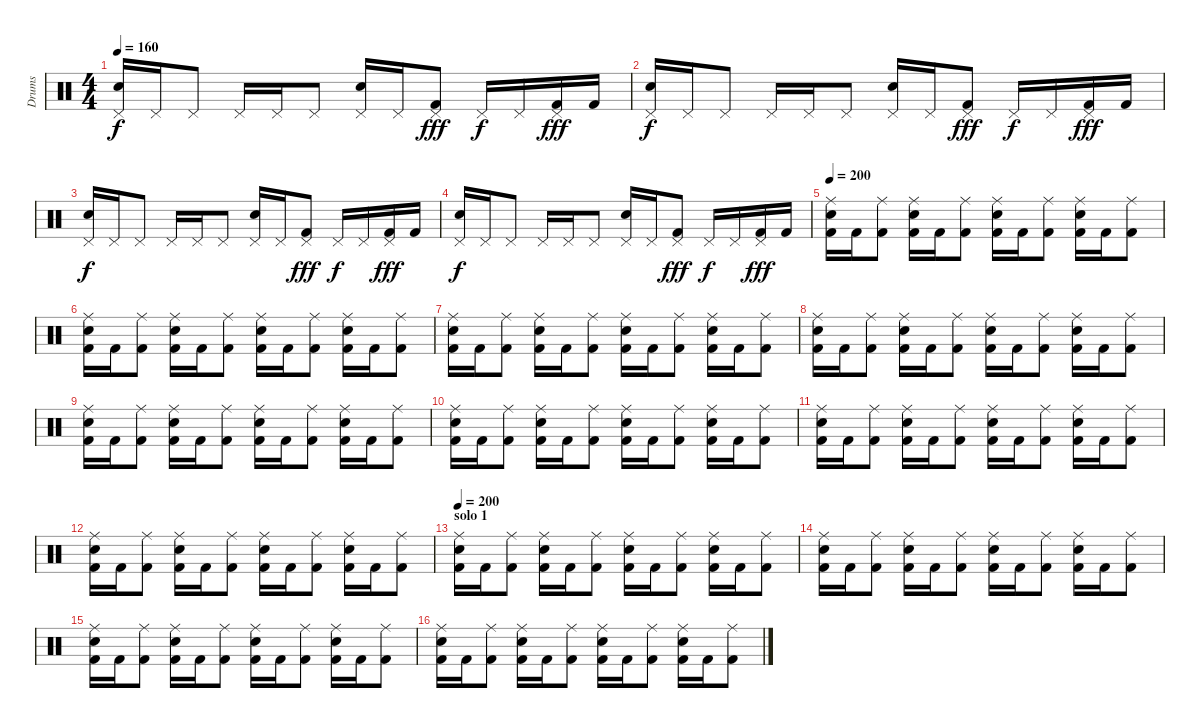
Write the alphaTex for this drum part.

\track ("Drums" "Drums") {instrument percussion}
\staff {score}
\articulation defaults
\ts (4 4)
\tempo 160
\clef neutral
\ks c
("Pedal Hi-Hat (hit)" "Electric Snare (hit)").16{dy f} "Pedal Hi-Hat (hit)".16 "Pedal Hi-Hat (hit)".8 "Pedal Hi-Hat (hit)".16 "Pedal Hi-Hat (hit)".16 "Pedal Hi-Hat (hit)".8 ("Pedal Hi-Hat (hit)" "Electric Snare (hit)").16 "Pedal Hi-Hat (hit)".16 ("Pedal Hi-Hat (hit)" "Kick (hit) 2").8{dy fff} "Pedal Hi-Hat (hit)".16{dy f} "Pedal Hi-Hat (hit)".16 ("Pedal Hi-Hat (hit)" "Kick (hit) 2").16{dy fff} "Kick (hit) 2".16 |
("Pedal Hi-Hat (hit)" "Electric Snare (hit)").16{dy f} "Pedal Hi-Hat (hit)".16 "Pedal Hi-Hat (hit)".8 "Pedal Hi-Hat (hit)".16 "Pedal Hi-Hat (hit)".16 "Pedal Hi-Hat (hit)".8 ("Pedal Hi-Hat (hit)" "Electric Snare (hit)").16 "Pedal Hi-Hat (hit)".16 ("Pedal Hi-Hat (hit)" "Kick (hit) 2").8{dy fff} "Pedal Hi-Hat (hit)".16{dy f} "Pedal Hi-Hat (hit)".16 ("Pedal Hi-Hat (hit)" "Kick (hit) 2").16{dy fff} "Kick (hit) 2".16 |
("Pedal Hi-Hat (hit)" "Electric Snare (hit)").16{dy f} "Pedal Hi-Hat (hit)".16 "Pedal Hi-Hat (hit)".8 "Pedal Hi-Hat (hit)".16 "Pedal Hi-Hat (hit)".16 "Pedal Hi-Hat (hit)".8 ("Pedal Hi-Hat (hit)" "Electric Snare (hit)").16 "Pedal Hi-Hat (hit)".16 ("Pedal Hi-Hat (hit)" "Kick (hit) 2").8{dy fff} "Pedal Hi-Hat (hit)".16{dy f} "Pedal Hi-Hat (hit)".16 ("Pedal Hi-Hat (hit)" "Kick (hit) 2").16{dy fff} "Kick (hit) 2".16 |
("Pedal Hi-Hat (hit)" "Electric Snare (hit)").16{dy f} "Pedal Hi-Hat (hit)".16 "Pedal Hi-Hat (hit)".8 "Pedal Hi-Hat (hit)".16 "Pedal Hi-Hat (hit)".16 "Pedal Hi-Hat (hit)".8 ("Pedal Hi-Hat (hit)" "Electric Snare (hit)").16 "Pedal Hi-Hat (hit)".16 ("Pedal Hi-Hat (hit)" "Kick (hit) 2").8{dy fff} "Pedal Hi-Hat (hit)".16{dy f} "Pedal Hi-Hat (hit)".16 ("Pedal Hi-Hat (hit)" "Kick (hit) 2").16{dy fff} "Kick (hit) 2".16 |
\tempo 200
("Ride (middle)" "Electric Snare (hit)" "Kick (hit) 2").16 "Kick (hit) 2".16 ("Ride (middle)" "Kick (hit) 2").8 ("Ride (middle)" "Electric Snare (hit)" "Kick (hit) 2").16 "Kick (hit) 2".16 ("Ride (middle)" "Kick (hit) 2").8 ("Ride (middle)" "Electric Snare (hit)" "Kick (hit) 2").16 "Kick (hit) 2".16 ("Ride (middle)" "Kick (hit) 2").8 ("Ride (middle)" "Electric Snare (hit)" "Kick (hit) 2").16 "Kick (hit) 2".16 ("Ride (middle)" "Kick (hit) 2").8 |
("Ride (middle)" "Electric Snare (hit)" "Kick (hit) 2").16 "Kick (hit) 2".16 ("Ride (middle)" "Kick (hit) 2").8 ("Ride (middle)" "Electric Snare (hit)" "Kick (hit) 2").16 "Kick (hit) 2".16 ("Ride (middle)" "Kick (hit) 2").8 ("Ride (middle)" "Electric Snare (hit)" "Kick (hit) 2").16 "Kick (hit) 2".16 ("Ride (middle)" "Kick (hit) 2").8 ("Ride (middle)" "Electric Snare (hit)" "Kick (hit) 2").16 "Kick (hit) 2".16 ("Ride (middle)" "Kick (hit) 2").8 |
("Ride (middle)" "Electric Snare (hit)" "Kick (hit) 2").16 "Kick (hit) 2".16 ("Ride (middle)" "Kick (hit) 2").8 ("Ride (middle)" "Electric Snare (hit)" "Kick (hit) 2").16 "Kick (hit) 2".16 ("Ride (middle)" "Kick (hit) 2").8 ("Ride (middle)" "Electric Snare (hit)" "Kick (hit) 2").16 "Kick (hit) 2".16 ("Ride (middle)" "Kick (hit) 2").8 ("Ride (middle)" "Electric Snare (hit)" "Kick (hit) 2").16 "Kick (hit) 2".16 ("Ride (middle)" "Kick (hit) 2").8 |
("Ride (middle)" "Electric Snare (hit)" "Kick (hit) 2").16 "Kick (hit) 2".16 ("Ride (middle)" "Kick (hit) 2").8 ("Ride (middle)" "Electric Snare (hit)" "Kick (hit) 2").16 "Kick (hit) 2".16 ("Ride (middle)" "Kick (hit) 2").8 ("Ride (middle)" "Electric Snare (hit)" "Kick (hit) 2").16 "Kick (hit) 2".16 ("Ride (middle)" "Kick (hit) 2").8 ("Ride (middle)" "Electric Snare (hit)" "Kick (hit) 2").16 "Kick (hit) 2".16 ("Ride (middle)" "Kick (hit) 2").8 |
("Ride (middle)" "Electric Snare (hit)" "Kick (hit) 2").16 "Kick (hit) 2".16 ("Ride (middle)" "Kick (hit) 2").8 ("Ride (middle)" "Electric Snare (hit)" "Kick (hit) 2").16 "Kick (hit) 2".16 ("Ride (middle)" "Kick (hit) 2").8 ("Ride (middle)" "Electric Snare (hit)" "Kick (hit) 2").16 "Kick (hit) 2".16 ("Ride (middle)" "Kick (hit) 2").8 ("Ride (middle)" "Electric Snare (hit)" "Kick (hit) 2").16 "Kick (hit) 2".16 ("Ride (middle)" "Kick (hit) 2").8 |
("Ride (middle)" "Electric Snare (hit)" "Kick (hit) 2").16 "Kick (hit) 2".16 ("Ride (middle)" "Kick (hit) 2").8 ("Ride (middle)" "Electric Snare (hit)" "Kick (hit) 2").16 "Kick (hit) 2".16 ("Ride (middle)" "Kick (hit) 2").8 ("Ride (middle)" "Electric Snare (hit)" "Kick (hit) 2").16 "Kick (hit) 2".16 ("Ride (middle)" "Kick (hit) 2").8 ("Ride (middle)" "Electric Snare (hit)" "Kick (hit) 2").16 "Kick (hit) 2".16 ("Ride (middle)" "Kick (hit) 2").8 |
("Ride (middle)" "Electric Snare (hit)" "Kick (hit) 2").16 "Kick (hit) 2".16 ("Ride (middle)" "Kick (hit) 2").8 ("Ride (middle)" "Electric Snare (hit)" "Kick (hit) 2").16 "Kick (hit) 2".16 ("Ride (middle)" "Kick (hit) 2").8 ("Ride (middle)" "Electric Snare (hit)" "Kick (hit) 2").16 "Kick (hit) 2".16 ("Ride (middle)" "Kick (hit) 2").8 ("Ride (middle)" "Electric Snare (hit)" "Kick (hit) 2").16 "Kick (hit) 2".16 ("Ride (middle)" "Kick (hit) 2").8 |
("Ride (middle)" "Electric Snare (hit)" "Kick (hit) 2").16 "Kick (hit) 2".16 ("Ride (middle)" "Kick (hit) 2").8 ("Ride (middle)" "Electric Snare (hit)" "Kick (hit) 2").16 "Kick (hit) 2".16 ("Ride (middle)" "Kick (hit) 2").8 ("Ride (middle)" "Electric Snare (hit)" "Kick (hit) 2").16 "Kick (hit) 2".16 ("Ride (middle)" "Kick (hit) 2").8 ("Ride (middle)" "Electric Snare (hit)" "Kick (hit) 2").16 "Kick (hit) 2".16 ("Ride (middle)" "Kick (hit) 2").8 |
\section ("" "solo 1")
\tempo 200
("Ride (middle)" "Electric Snare (hit)" "Kick (hit) 2").16 "Kick (hit) 2".16 ("Ride (middle)" "Kick (hit) 2").8 ("Ride (middle)" "Electric Snare (hit)" "Kick (hit) 2").16 "Kick (hit) 2".16 ("Ride (middle)" "Kick (hit) 2").8 ("Ride (middle)" "Electric Snare (hit)" "Kick (hit) 2").16 "Kick (hit) 2".16 ("Ride (middle)" "Kick (hit) 2").8 ("Ride (middle)" "Electric Snare (hit)" "Kick (hit) 2").16 "Kick (hit) 2".16 ("Ride (middle)" "Kick (hit) 2").8 |
("Ride (middle)" "Electric Snare (hit)" "Kick (hit) 2").16 "Kick (hit) 2".16 ("Ride (middle)" "Kick (hit) 2").8 ("Ride (middle)" "Electric Snare (hit)" "Kick (hit) 2").16 "Kick (hit) 2".16 ("Ride (middle)" "Kick (hit) 2").8 ("Ride (middle)" "Electric Snare (hit)" "Kick (hit) 2").16 "Kick (hit) 2".16 ("Ride (middle)" "Kick (hit) 2").8 ("Ride (middle)" "Electric Snare (hit)" "Kick (hit) 2").16 "Kick (hit) 2".16 ("Ride (middle)" "Kick (hit) 2").8 |
("Ride (middle)" "Electric Snare (hit)" "Kick (hit) 2").16 "Kick (hit) 2".16 ("Ride (middle)" "Kick (hit) 2").8 ("Ride (middle)" "Electric Snare (hit)" "Kick (hit) 2").16 "Kick (hit) 2".16 ("Ride (middle)" "Kick (hit) 2").8 ("Ride (middle)" "Electric Snare (hit)" "Kick (hit) 2").16 "Kick (hit) 2".16 ("Ride (middle)" "Kick (hit) 2").8 ("Ride (middle)" "Electric Snare (hit)" "Kick (hit) 2").16 "Kick (hit) 2".16 ("Ride (middle)" "Kick (hit) 2").8 |
("Ride (middle)" "Electric Snare (hit)" "Kick (hit) 2").16 "Kick (hit) 2".16 ("Ride (middle)" "Kick (hit) 2").8 ("Ride (middle)" "Electric Snare (hit)" "Kick (hit) 2").16 "Kick (hit) 2".16 ("Ride (middle)" "Kick (hit) 2").8 ("Ride (middle)" "Electric Snare (hit)" "Kick (hit) 2").16 "Kick (hit) 2".16 ("Ride (middle)" "Kick (hit) 2").8 ("Ride (middle)" "Electric Snare (hit)" "Kick (hit) 2").16 "Kick (hit) 2".16 ("Ride (middle)" "Kick (hit) 2").8
